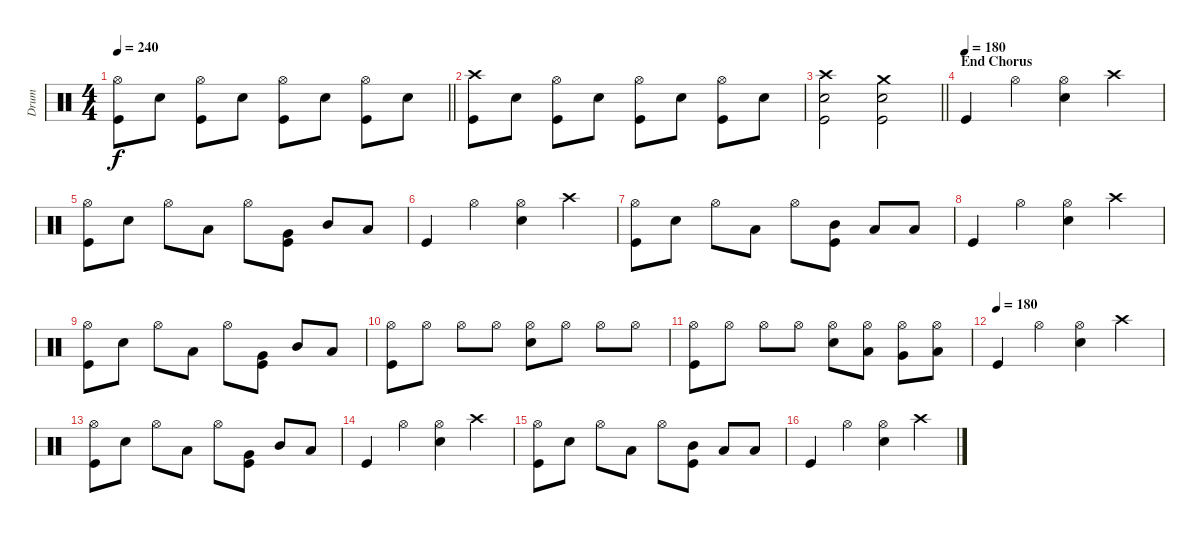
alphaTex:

\track ("Drum" "Drum") {instrument percussion}
\staff {score}
\articulation defaults
\ts (4 4)
\tempo 240
\clef neutral
\barLineRight lightlight
\ks c
("Hi-Hat (open)" "Kick (hit)").8{dy f} "Snare (hit) 2".8 ("Hi-Hat (open)" "Kick (hit)").8 "Snare (hit) 2".8 ("Hi-Hat (open)" "Kick (hit)").8 "Snare (hit) 2".8 ("Hi-Hat (open)" "Kick (hit)").8 "Snare (hit) 2".8 |
("Crash high (hit)" "Kick (hit)").8 "Snare (hit) 2".8 ("Hi-Hat (open)" "Kick (hit)").8 "Snare (hit) 2".8 ("Hi-Hat (open)" "Kick (hit)").8 "Snare (hit) 2".8 ("Hi-Hat (open)" "Kick (hit)").8 "Snare (hit) 2".8 |
\barLineRight lightlight
("Crash high (hit)" "Snare (hit) 2" "Kick (hit)").2 ("Crash medium (hit)" "Snare (hit) 2" "Kick (hit)").2 |
\section ("" "End Chorus")
\tempo (180)
"Kick (hit)".4 "Hi-Hat (open)".4 ("Hi-Hat (open)" "Snare (hit) 2").4 "Crash high (hit)".4 |
("Hi-Hat (open)" "Kick (hit)").8 "Snare (hit) 2".8 "Hi-Hat (open)".8 "Low Tom (hit)".8 "Hi-Hat (open)".8 ("Very Low Tom (hit)" "Kick (hit)").8 "Mid Tom (hit)".8 "Low Tom (hit)".8 |
"Kick (hit)".4 "Hi-Hat (open)".4 ("Hi-Hat (open)" "Snare (hit) 2").4 "Crash high (hit)".4 |
("Hi-Hat (open)" "Kick (hit)").8 "Snare (hit) 2".8 "Hi-Hat (open)".8 "Low Tom (hit)".8 "Hi-Hat (open)".8 ("Mid Tom (hit)" "Kick (hit)").8 "Low Tom (hit)".8 "Low Floor Tom (hit)".8 |
"Kick (hit)".4 "Hi-Hat (open)".4 ("Hi-Hat (open)" "Snare (hit) 2").4 "Crash high (hit)".4 |
("Hi-Hat (open)" "Kick (hit)").8 "Snare (hit) 2".8 "Hi-Hat (open)".8 "Low Tom (hit)".8 "Hi-Hat (open)".8 ("Very Low Tom (hit)" "Kick (hit)").8 "Mid Tom (hit)".8 "Low Tom (hit)".8 |
("Hi-Hat (open)" "Kick (hit)").8 "Hi-Hat (open)".8 "Hi-Hat (open)".8 "Hi-Hat (open)".8 ("Hi-Hat (open)" "Snare (hit) 2").8 "Hi-Hat (open)".8 "Hi-Hat (open)".8 "Hi-Hat (open)".8 |
("Hi-Hat (open)" "Kick (hit)").8 "Hi-Hat (open)".8 "Hi-Hat (open)".8 "Hi-Hat (open)".8 ("Hi-Hat (open)" "Snare (hit) 2").8 ("Hi-Hat (open)" "Low Tom (hit)").8 ("Hi-Hat (open)" "Very Low Tom (hit)").8 ("Hi-Hat (open)" "Low Floor Tom (hit)").8 |
\tempo (180)
"Kick (hit)".4 "Hi-Hat (open)".4 ("Hi-Hat (open)" "Snare (hit) 2").4 "Crash high (hit)".4 |
("Hi-Hat (open)" "Kick (hit)").8 "Snare (hit) 2".8 "Hi-Hat (open)".8 "Low Tom (hit)".8 "Hi-Hat (open)".8 ("Very Low Tom (hit)" "Kick (hit)").8 "Mid Tom (hit)".8 "Low Tom (hit)".8 |
"Kick (hit)".4 "Hi-Hat (open)".4 ("Hi-Hat (open)" "Snare (hit) 2").4 "Crash high (hit)".4 |
("Hi-Hat (open)" "Kick (hit)").8 "Snare (hit) 2".8 "Hi-Hat (open)".8 "Low Tom (hit)".8 "Hi-Hat (open)".8 ("Mid Tom (hit)" "Kick (hit)").8 "Low Tom (hit)".8 "Low Floor Tom (hit)".8 |
"Kick (hit)".4 "Hi-Hat (open)".4 ("Hi-Hat (open)" "Snare (hit) 2").4 "Crash high (hit)".4
